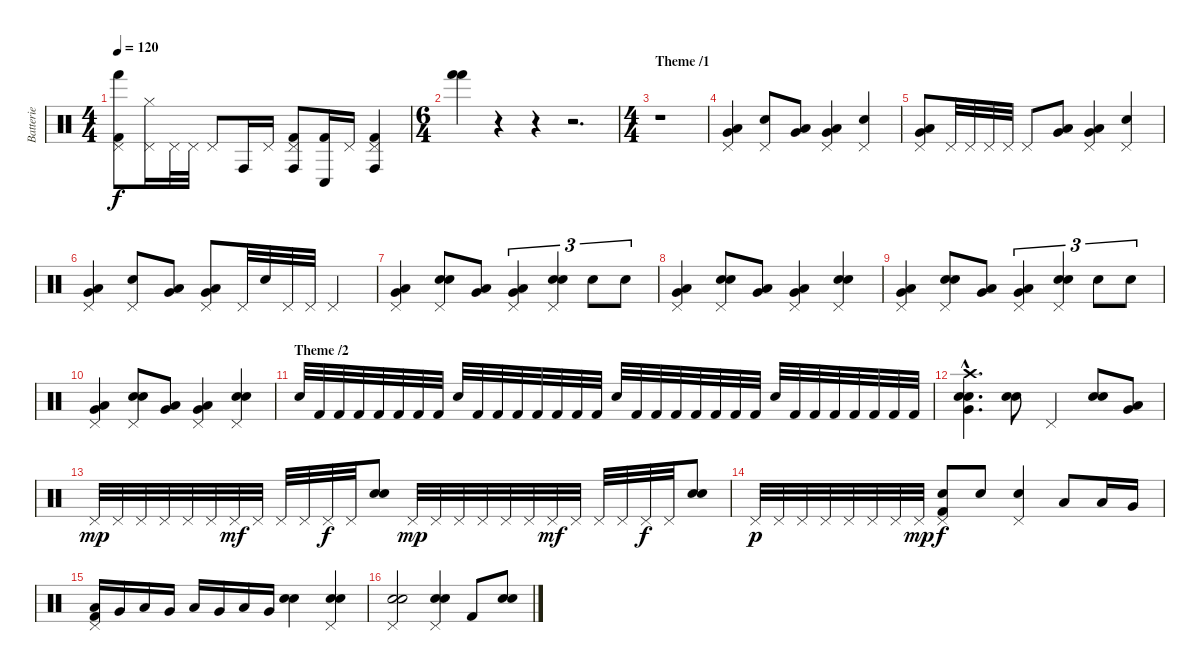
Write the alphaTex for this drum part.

\track ("Batterie" "Batterie") {instrument percussion}
\staff {score}
\articulation defaults
\ts (4 4)
\tempo 120
\clef neutral
\ks c
("Pedal Hi-Hat (hit)" "Hand (hit)" "Kick (hit) 2").8{dy f} ("Pedal Hi-Hat (hit)" "Hi-Hat (closed)").16 "Pedal Hi-Hat (hit)".32 "Pedal Hi-Hat (hit)".32 "Pedal Hi-Hat (hit)".8 "Conga high (hit)".16 "Pedal Hi-Hat (hit)".16 ("Pedal Hi-Hat (hit)" "Conga high (hit)" "Kick (hit) 2").8 ("Conga low (hit)" "Kick (hit) 2").16 "Pedal Hi-Hat (hit)".16 ("Pedal Hi-Hat (hit)" "Conga high (hit)" "Kick (hit) 2").4 |
\ts (6 4)
("Hand (hit)" "Hand (hit)").4 r.4 r.4 r.2{d} |
\ts (4 4)
\section ("" "Theme /1")
r.1 |
("Pedal Hi-Hat (hit)" "Very Low Tom (hit)" "Low Floor Tom (hit)").4 ("Pedal Hi-Hat (hit)" "Electric Snare (hit)").8 ("Very Low Tom (hit)" "Low Floor Tom (hit)").8 ("Pedal Hi-Hat (hit)" "Very Low Tom (hit)" "Low Floor Tom (hit)").4 ("Pedal Hi-Hat (hit)" "Electric Snare (hit)").4 |
("Pedal Hi-Hat (hit)" "Very Low Tom (hit)" "Low Floor Tom (hit)").8 "Pedal Hi-Hat (hit)".32 "Pedal Hi-Hat (hit)".32 "Pedal Hi-Hat (hit)".32 "Pedal Hi-Hat (hit)".32 "Pedal Hi-Hat (hit)".8 ("Very Low Tom (hit)" "Low Floor Tom (hit)").8 ("Pedal Hi-Hat (hit)" "Very Low Tom (hit)" "Low Floor Tom (hit)").4 ("Pedal Hi-Hat (hit)" "Electric Snare (hit)").4 |
("Pedal Hi-Hat (hit)" "Very Low Tom (hit)" "Low Floor Tom (hit)").4 ("Pedal Hi-Hat (hit)" "Electric Snare (hit)").8 ("Very Low Tom (hit)" "Low Floor Tom (hit)").8 ("Pedal Hi-Hat (hit)" "Very Low Tom (hit)" "Low Floor Tom (hit)").8 "Pedal Hi-Hat (hit)".32 "Snare (hit)".32 "Pedal Hi-Hat (hit)".32 "Pedal Hi-Hat (hit)".32 "Pedal Hi-Hat (hit)".4 |
("Pedal Hi-Hat (hit)" "Very Low Tom (hit)" "Low Floor Tom (hit)").4 ("Pedal Hi-Hat (hit)" "Electric Snare (hit)" "Electric Snare (hit)").8 ("Very Low Tom (hit)" "Low Floor Tom (hit)").8 ("Pedal Hi-Hat (hit)" "Very Low Tom (hit)" "Low Floor Tom (hit)").4{tu (3 2)} ("Pedal Hi-Hat (hit)" "Electric Snare (hit)" "Electric Snare (hit)").4{tu (3 2)} "Electric Snare (hit)".8{tu (3 2)} "Electric Snare (hit)".8{tu (3 2)} |
("Pedal Hi-Hat (hit)" "Very Low Tom (hit)" "Low Floor Tom (hit)").4 ("Pedal Hi-Hat (hit)" "Electric Snare (hit)" "Electric Snare (hit)").8 ("Very Low Tom (hit)" "Low Floor Tom (hit)").8 ("Pedal Hi-Hat (hit)" "Very Low Tom (hit)" "Low Floor Tom (hit)").4 ("Pedal Hi-Hat (hit)" "Electric Snare (hit)" "Electric Snare (hit)").4 |
("Pedal Hi-Hat (hit)" "Very Low Tom (hit)" "Low Floor Tom (hit)").4 ("Pedal Hi-Hat (hit)" "Electric Snare (hit)" "Electric Snare (hit)").8 ("Very Low Tom (hit)" "Low Floor Tom (hit)").8 ("Pedal Hi-Hat (hit)" "Very Low Tom (hit)" "Low Floor Tom (hit)").4{tu (3 2)} ("Pedal Hi-Hat (hit)" "Electric Snare (hit)" "Electric Snare (hit)").4{tu (3 2)} "Electric Snare (hit)".8{tu (3 2)} "Electric Snare (hit)".8{tu (3 2)} |
("Pedal Hi-Hat (hit)" "Very Low Tom (hit)" "Low Floor Tom (hit)").4 ("Pedal Hi-Hat (hit)" "Electric Snare (hit)" "Electric Snare (hit)").8 ("Very Low Tom (hit)" "Low Floor Tom (hit)").8 ("Pedal Hi-Hat (hit)" "Very Low Tom (hit)" "Low Floor Tom (hit)").4 ("Pedal Hi-Hat (hit)" "Electric Snare (hit)" "Electric Snare (hit)").4 |
\section ("" "Theme /2")
"Electric Snare (hit)".32 "Kick (hit) 2".32 "Kick (hit) 2".32 "Kick (hit) 2".32 "Kick (hit) 2".32 "Kick (hit) 2".32 "Kick (hit) 2".32 "Kick (hit) 2".32 "Electric Snare (hit)".32 "Kick (hit) 2".32 "Kick (hit) 2".32 "Kick (hit) 2".32 "Kick (hit) 2".32 "Kick (hit) 2".32 "Kick (hit) 2".32 "Kick (hit) 2".32 "Electric Snare (hit)".32 "Kick (hit) 2".32 "Kick (hit) 2".32 "Kick (hit) 2".32 "Kick (hit) 2".32 "Kick (hit) 2".32 "Kick (hit) 2".32 "Kick (hit) 2".32 "Electric Snare (hit)".32 "Kick (hit) 2".32 "Kick (hit) 2".32 "Kick (hit) 2".32 "Kick (hit) 2".32 "Kick (hit) 2".32 "Kick (hit) 2".32 "Kick (hit) 2".32 |
("Crash high (hit)"{hac} "Electric Snare (hit)"{hac} "Electric Snare (hit)"{hac} "Very Low Tom (hit)"{hac}).4{d} ("Electric Snare (hit)" "Electric Snare (hit)").8 "Pedal Hi-Hat (hit)".4 ("Electric Snare (hit)" "Electric Snare (hit)").8 ("Very Low Tom (hit)" "Low Floor Tom (hit)").8 |
"Pedal Hi-Hat (hit)".32{dy mp} "Pedal Hi-Hat (hit)".32 "Pedal Hi-Hat (hit)".32 "Pedal Hi-Hat (hit)".32 "Pedal Hi-Hat (hit)".32 "Pedal Hi-Hat (hit)".32 "Pedal Hi-Hat (hit)".32{dy mf} "Pedal Hi-Hat (hit)".32 "Pedal Hi-Hat (hit)".32 "Pedal Hi-Hat (hit)".32 "Pedal Hi-Hat (hit)".32{dy f} "Pedal Hi-Hat (hit)".32 ("Electric Snare (hit)" "Electric Snare (hit)").8 "Pedal Hi-Hat (hit)".32{dy mp} "Pedal Hi-Hat (hit)".32 "Pedal Hi-Hat (hit)".32 "Pedal Hi-Hat (hit)".32 "Pedal Hi-Hat (hit)".32 "Pedal Hi-Hat (hit)".32 "Pedal Hi-Hat (hit)".32{dy mf} "Pedal Hi-Hat (hit)".32 "Pedal Hi-Hat (hit)".32 "Pedal Hi-Hat (hit)".32 "Pedal Hi-Hat (hit)".32{dy f} "Pedal Hi-Hat (hit)".32 ("Electric Snare (hit)" "Electric Snare (hit)").8 |
"Pedal Hi-Hat (hit)".32{dy p} "Pedal Hi-Hat (hit)".32 "Pedal Hi-Hat (hit)".32 "Pedal Hi-Hat (hit)".32 "Pedal Hi-Hat (hit)".32 "Pedal Hi-Hat (hit)".32 "Pedal Hi-Hat (hit)".32 "Pedal Hi-Hat (hit)".32{dy mp} ("Pedal Hi-Hat (hit)" "Electric Snare (hit)" "Kick (hit) 2").8{dy f} "Electric Snare (hit)".8 ("Pedal Hi-Hat (hit)" "Electric Snare (hit)").4 "Low Tom (hit)".8 "Low Floor Tom (hit)".16 "Very Low Tom (hit)".16 |
("Pedal Hi-Hat (hit)" "Low Floor Tom (hit)" "Kick (hit) 2").16 "Very Low Tom (hit)".16 "Low Tom (hit)".16 "Very Low Tom (hit)".16 "Low Floor Tom (hit)".16 "Very Low Tom (hit)".16 "Low Floor Tom (hit)".16 "Very Low Tom (hit)".16 ("Electric Snare (hit)" "Electric Snare (hit)").4 ("Pedal Hi-Hat (hit)" "Electric Snare (hit)" "Electric Snare (hit)").4 |
("Pedal Hi-Hat (hit)" "Electric Snare (hit)" "Electric Snare (hit)").2 ("Pedal Hi-Hat (hit)" "Electric Snare (hit)" "Electric Snare (hit)").4 "Kick (hit) 2".8 ("Electric Snare (hit)" "Electric Snare (hit)").8
